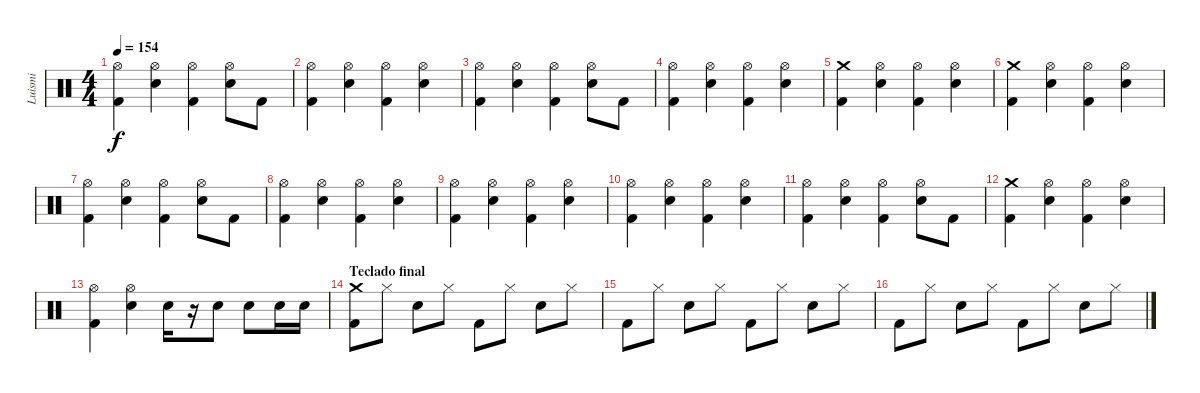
\track ("Luismi" "Luismi") {instrument percussion}
\staff {score}
\articulation defaults
\ts (4 4)
\tempo 154
\clef neutral
\ks c
("Hi-Hat (open)" "Kick (hit) 2").4{dy f} ("Hi-Hat (open)" "Snare (hit) 2").4 ("Hi-Hat (open)" "Kick (hit) 2").4 ("Hi-Hat (open)" "Snare (hit) 2").8 "Kick (hit) 2".8 |
("Hi-Hat (open)" "Kick (hit) 2").4 ("Hi-Hat (open)" "Snare (hit) 2").4 ("Hi-Hat (open)" "Kick (hit) 2").4 ("Hi-Hat (open)" "Snare (hit) 2").4 |
("Hi-Hat (open)" "Kick (hit) 2").4 ("Hi-Hat (open)" "Snare (hit) 2").4 ("Hi-Hat (open)" "Kick (hit) 2").4 ("Hi-Hat (open)" "Snare (hit) 2").8 "Kick (hit) 2".8 |
("Hi-Hat (open)" "Kick (hit) 2").4 ("Hi-Hat (open)" "Snare (hit) 2").4 ("Hi-Hat (open)" "Kick (hit) 2").4 ("Hi-Hat (open)" "Snare (hit) 2").4 |
("Crash medium (hit)" "Kick (hit) 2").4 ("Hi-Hat (open)" "Snare (hit) 2").4 ("Hi-Hat (open)" "Kick (hit) 2").4 ("Hi-Hat (open)" "Snare (hit) 2").4 |
("Crash medium (hit)" "Kick (hit) 2").4 ("Hi-Hat (open)" "Snare (hit) 2").4 ("Hi-Hat (open)" "Kick (hit) 2").4 ("Hi-Hat (open)" "Snare (hit) 2").4 |
("Hi-Hat (open)" "Kick (hit) 2").4 ("Hi-Hat (open)" "Snare (hit) 2").4 ("Hi-Hat (open)" "Kick (hit) 2").4 ("Hi-Hat (open)" "Snare (hit) 2").8 "Kick (hit) 2".8 |
("Hi-Hat (open)" "Kick (hit) 2").4 ("Hi-Hat (open)" "Snare (hit) 2").4 ("Hi-Hat (open)" "Kick (hit) 2").4 ("Hi-Hat (open)" "Snare (hit) 2").4 |
("Hi-Hat (open)" "Kick (hit) 2").4 ("Hi-Hat (open)" "Snare (hit) 2").4 ("Hi-Hat (open)" "Kick (hit) 2").4 ("Hi-Hat (open)" "Snare (hit) 2").4 |
("Hi-Hat (open)" "Kick (hit) 2").4 ("Hi-Hat (open)" "Snare (hit) 2").4 ("Hi-Hat (open)" "Kick (hit) 2").4 ("Hi-Hat (open)" "Snare (hit) 2").4 |
("Hi-Hat (open)" "Kick (hit) 2").4 ("Hi-Hat (open)" "Snare (hit) 2").4 ("Hi-Hat (open)" "Kick (hit) 2").4 ("Hi-Hat (open)" "Snare (hit) 2").8 "Kick (hit) 2".8 |
("Crash medium (hit)" "Kick (hit) 2").4 ("Hi-Hat (open)" "Snare (hit) 2").4 ("Hi-Hat (open)" "Kick (hit) 2").4 ("Hi-Hat (open)" "Snare (hit) 2").4 |
("Hi-Hat (open)" "Kick (hit) 2").4 ("Hi-Hat (open)" "Snare (hit) 2").4 "Snare (hit) 2".16 r.16 "Snare (hit) 2".8 "Snare (hit) 2".8 "Snare (hit) 2".16 "Snare (hit) 2".16 |
\section ("" "Teclado final")
("Crash medium (hit)" "Kick (hit) 2").8 "Hi-Hat (closed)".8 "Snare (hit) 2".8 "Hi-Hat (closed)".8 "Kick (hit) 2".8 "Hi-Hat (closed)".8 "Snare (hit) 2".8 "Hi-Hat (closed)".8 |
"Kick (hit) 2".8 "Hi-Hat (closed)".8 "Snare (hit) 2".8 "Hi-Hat (closed)".8 "Kick (hit) 2".8 "Hi-Hat (closed)".8 "Snare (hit) 2".8 "Hi-Hat (closed)".8 |
"Kick (hit) 2".8 "Hi-Hat (closed)".8 "Snare (hit) 2".8 "Hi-Hat (closed)".8 "Kick (hit) 2".8 "Hi-Hat (closed)".8 "Snare (hit) 2".8 "Hi-Hat (closed)".8
